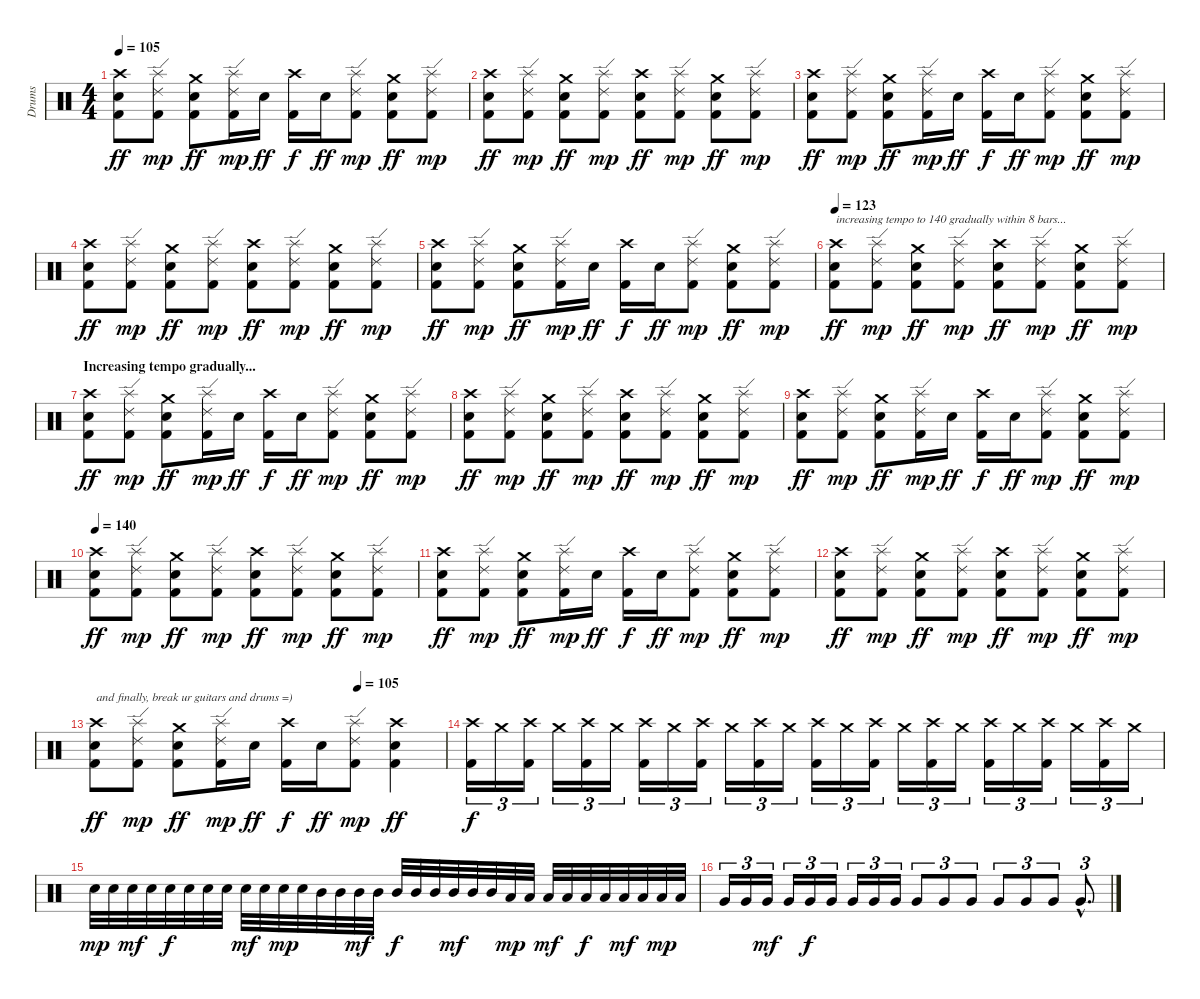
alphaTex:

\track ("Drums" "Drums") {instrument percussion}
\staff {score}
\articulation defaults
\ts (4 4)
\tempo 105
\clef neutral
\ks c
("Crash high (hit)" "Snare (hit) 2" "Kick (hit) 2").8{dy ff} ("Splash (hit)" "Ride (edge) 2" "Kick (hit) 2").8{dy mp} ("Crash medium (hit)" "Snare (hit) 2" "Kick (hit) 2").8{dy ff} ("Splash (hit)" "Ride (edge) 2" "Kick (hit) 2").16{dy mp} "Snare (hit) 2".16{dy ff} ("Crash high (hit)" "Kick (hit) 2").16{dy f} "Snare (hit) 2".16{dy ff} ("Splash (hit)" "Ride (edge) 2" "Kick (hit) 2").8{dy mp} ("Crash medium (hit)" "Snare (hit) 2" "Kick (hit) 2").8{dy ff} ("Splash (hit)" "Ride (edge) 2" "Kick (hit) 2").8{dy mp} |
("Crash high (hit)" "Snare (hit) 2" "Kick (hit) 2").8{dy ff} ("Splash (hit)" "Ride (edge) 2" "Kick (hit) 2").8{dy mp} ("Crash medium (hit)" "Snare (hit) 2" "Kick (hit) 2").8{dy ff} ("Splash (hit)" "Ride (edge) 2" "Kick (hit) 2").8{dy mp} ("Crash high (hit)" "Snare (hit) 2" "Kick (hit) 2").8{dy ff} ("Splash (hit)" "Ride (edge) 2" "Kick (hit) 2").8{dy mp} ("Crash medium (hit)" "Snare (hit) 2" "Kick (hit) 2").8{dy ff} ("Splash (hit)" "Ride (edge) 2" "Kick (hit) 2").8{dy mp} |
("Crash high (hit)" "Snare (hit) 2" "Kick (hit) 2").8{dy ff} ("Splash (hit)" "Ride (edge) 2" "Kick (hit) 2").8{dy mp} ("Crash medium (hit)" "Snare (hit) 2" "Kick (hit) 2").8{dy ff} ("Splash (hit)" "Ride (edge) 2" "Kick (hit) 2").16{dy mp} "Snare (hit) 2".16{dy ff} ("Crash high (hit)" "Kick (hit) 2").16{dy f} "Snare (hit) 2".16{dy ff} ("Splash (hit)" "Ride (edge) 2" "Kick (hit) 2").8{dy mp} ("Crash medium (hit)" "Snare (hit) 2" "Kick (hit) 2").8{dy ff} ("Splash (hit)" "Ride (edge) 2" "Kick (hit) 2").8{dy mp} |
("Crash high (hit)" "Snare (hit) 2" "Kick (hit) 2").8{dy ff} ("Splash (hit)" "Ride (edge) 2" "Kick (hit) 2").8{dy mp} ("Crash medium (hit)" "Snare (hit) 2" "Kick (hit) 2").8{dy ff} ("Splash (hit)" "Ride (edge) 2" "Kick (hit) 2").8{dy mp} ("Crash high (hit)" "Snare (hit) 2" "Kick (hit) 2").8{dy ff} ("Splash (hit)" "Ride (edge) 2" "Kick (hit) 2").8{dy mp} ("Crash medium (hit)" "Snare (hit) 2" "Kick (hit) 2").8{dy ff} ("Splash (hit)" "Ride (edge) 2" "Kick (hit) 2").8{dy mp} |
("Crash high (hit)" "Snare (hit) 2" "Kick (hit) 2").8{dy ff} ("Splash (hit)" "Ride (edge) 2" "Kick (hit) 2").8{dy mp} ("Crash medium (hit)" "Snare (hit) 2" "Kick (hit) 2").8{dy ff} ("Splash (hit)" "Ride (edge) 2" "Kick (hit) 2").16{dy mp} "Snare (hit) 2".16{dy ff} ("Crash high (hit)" "Kick (hit) 2").16{dy f} "Snare (hit) 2".16{dy ff} ("Splash (hit)" "Ride (edge) 2" "Kick (hit) 2").8{dy mp} ("Crash medium (hit)" "Snare (hit) 2" "Kick (hit) 2").8{dy ff} ("Splash (hit)" "Ride (edge) 2" "Kick (hit) 2").8{dy mp} |
\tempo 123
("Crash high (hit)" "Snare (hit) 2" "Kick (hit) 2").8{txt "increasing tempo to 140 gradually within 8 bars..." dy ff} ("Splash (hit)" "Ride (edge) 2" "Kick (hit) 2").8{dy mp} ("Crash medium (hit)" "Snare (hit) 2" "Kick (hit) 2").8{dy ff} ("Splash (hit)" "Ride (edge) 2" "Kick (hit) 2").8{dy mp} ("Crash high (hit)" "Snare (hit) 2" "Kick (hit) 2").8{dy ff} ("Splash (hit)" "Ride (edge) 2" "Kick (hit) 2").8{dy mp} ("Crash medium (hit)" "Snare (hit) 2" "Kick (hit) 2").8{dy ff} ("Splash (hit)" "Ride (edge) 2" "Kick (hit) 2").8{dy mp} |
\section ("" "Increasing tempo gradually...")
("Crash high (hit)" "Snare (hit) 2" "Kick (hit) 2").8{dy ff} ("Splash (hit)" "Ride (edge) 2" "Kick (hit) 2").8{dy mp} ("Crash medium (hit)" "Snare (hit) 2" "Kick (hit) 2").8{dy ff} ("Splash (hit)" "Ride (edge) 2" "Kick (hit) 2").16{dy mp} "Snare (hit) 2".16{dy ff} ("Crash high (hit)" "Kick (hit) 2").16{dy f} "Snare (hit) 2".16{dy ff} ("Splash (hit)" "Ride (edge) 2" "Kick (hit) 2").8{dy mp} ("Crash medium (hit)" "Snare (hit) 2" "Kick (hit) 2").8{dy ff} ("Splash (hit)" "Ride (edge) 2" "Kick (hit) 2").8{dy mp} |
("Crash high (hit)" "Snare (hit) 2" "Kick (hit) 2").8{dy ff} ("Splash (hit)" "Ride (edge) 2" "Kick (hit) 2").8{dy mp} ("Crash medium (hit)" "Snare (hit) 2" "Kick (hit) 2").8{dy ff} ("Splash (hit)" "Ride (edge) 2" "Kick (hit) 2").8{dy mp} ("Crash high (hit)" "Snare (hit) 2" "Kick (hit) 2").8{dy ff} ("Splash (hit)" "Ride (edge) 2" "Kick (hit) 2").8{dy mp} ("Crash medium (hit)" "Snare (hit) 2" "Kick (hit) 2").8{dy ff} ("Splash (hit)" "Ride (edge) 2" "Kick (hit) 2").8{dy mp} |
("Crash high (hit)" "Snare (hit) 2" "Kick (hit) 2").8{dy ff} ("Splash (hit)" "Ride (edge) 2" "Kick (hit) 2").8{dy mp} ("Crash medium (hit)" "Snare (hit) 2" "Kick (hit) 2").8{dy ff} ("Splash (hit)" "Ride (edge) 2" "Kick (hit) 2").16{dy mp} "Snare (hit) 2".16{dy ff} ("Crash high (hit)" "Kick (hit) 2").16{dy f} "Snare (hit) 2".16{dy ff} ("Splash (hit)" "Ride (edge) 2" "Kick (hit) 2").8{dy mp} ("Crash medium (hit)" "Snare (hit) 2" "Kick (hit) 2").8{dy ff} ("Splash (hit)" "Ride (edge) 2" "Kick (hit) 2").8{dy mp} |
\tempo 140
("Crash high (hit)" "Snare (hit) 2" "Kick (hit) 2").8{dy ff} ("Splash (hit)" "Ride (edge) 2" "Kick (hit) 2").8{dy mp} ("Crash medium (hit)" "Snare (hit) 2" "Kick (hit) 2").8{dy ff} ("Splash (hit)" "Ride (edge) 2" "Kick (hit) 2").8{dy mp} ("Crash high (hit)" "Snare (hit) 2" "Kick (hit) 2").8{dy ff} ("Splash (hit)" "Ride (edge) 2" "Kick (hit) 2").8{dy mp} ("Crash medium (hit)" "Snare (hit) 2" "Kick (hit) 2").8{dy ff} ("Splash (hit)" "Ride (edge) 2" "Kick (hit) 2").8{dy mp} |
("Crash high (hit)" "Snare (hit) 2" "Kick (hit) 2").8{dy ff} ("Splash (hit)" "Ride (edge) 2" "Kick (hit) 2").8{dy mp} ("Crash medium (hit)" "Snare (hit) 2" "Kick (hit) 2").8{dy ff} ("Splash (hit)" "Ride (edge) 2" "Kick (hit) 2").16{dy mp} "Snare (hit) 2".16{dy ff} ("Crash high (hit)" "Kick (hit) 2").16{dy f} "Snare (hit) 2".16{dy ff} ("Splash (hit)" "Ride (edge) 2" "Kick (hit) 2").8{dy mp} ("Crash medium (hit)" "Snare (hit) 2" "Kick (hit) 2").8{dy ff} ("Splash (hit)" "Ride (edge) 2" "Kick (hit) 2").8{dy mp} |
("Crash high (hit)" "Snare (hit) 2" "Kick (hit) 2").8{dy ff} ("Splash (hit)" "Ride (edge) 2" "Kick (hit) 2").8{dy mp} ("Crash medium (hit)" "Snare (hit) 2" "Kick (hit) 2").8{dy ff} ("Splash (hit)" "Ride (edge) 2" "Kick (hit) 2").8{dy mp} ("Crash high (hit)" "Snare (hit) 2" "Kick (hit) 2").8{dy ff} ("Splash (hit)" "Ride (edge) 2" "Kick (hit) 2").8{dy mp} ("Crash medium (hit)" "Snare (hit) 2" "Kick (hit) 2").8{dy ff} ("Splash (hit)" "Ride (edge) 2" "Kick (hit) 2").8{dy mp} |
\tempo (105 0.75)
("Crash high (hit)" "Snare (hit) 2" "Kick (hit) 2").8{txt "and finally, break ur guitars and drums =)" dy ff} ("Splash (hit)" "Ride (edge) 2" "Kick (hit) 2").8{dy mp} ("Crash medium (hit)" "Snare (hit) 2" "Kick (hit) 2").8{dy ff} ("Splash (hit)" "Ride (edge) 2" "Kick (hit) 2").16{dy mp} "Snare (hit) 2".16{dy ff} ("Crash high (hit)" "Kick (hit) 2").16{dy f} "Snare (hit) 2".16{dy ff} ("Splash (hit)" "Ride (edge) 2" "Kick (hit) 2").8{dy mp} ("Crash high (hit)" "Snare (hit) 2" "Kick (hit) 2").4{dy ff} |
("Crash high (hit)" "Kick (hit) 2").16{tu (3 2) dy f} "Crash medium (hit)".16{tu (3 2)} ("Crash high (hit)" "Kick (hit) 2").16{tu (3 2)} "Crash medium (hit)".16{tu (3 2)} ("Crash high (hit)" "Kick (hit) 2").16{tu (3 2)} "Crash medium (hit)".16{tu (3 2)} ("Crash high (hit)" "Kick (hit) 2").16{tu (3 2)} "Crash medium (hit)".16{tu (3 2)} ("Crash high (hit)" "Kick (hit) 2").16{tu (3 2)} "Crash medium (hit)".16{tu (3 2)} ("Crash high (hit)" "Kick (hit) 2").16{tu (3 2)} "Crash medium (hit)".16{tu (3 2)} ("Crash high (hit)" "Kick (hit) 2").16{tu (3 2)} "Crash medium (hit)".16{tu (3 2)} ("Crash high (hit)" "Kick (hit) 2").16{tu (3 2)} "Crash medium (hit)".16{tu (3 2)} ("Crash high (hit)" "Kick (hit) 2").16{tu (3 2)} "Crash medium (hit)".16{tu (3 2)} ("Crash high (hit)" "Kick (hit) 2").16{tu (3 2)} "Crash medium (hit)".16{tu (3 2)} ("Crash high (hit)" "Kick (hit) 2").16{tu (3 2)} "Crash medium (hit)".16{tu (3 2)} ("Crash high (hit)" "Kick (hit) 2").16{tu (3 2)} "Crash medium (hit)".16{tu (3 2)} |
"Snare (hit) 2".32{dy mp} "Snare (hit) 2".32 "Snare (hit) 2".32{dy mf} "Snare (hit) 2".32 "Snare (hit) 2".32{dy f} "Snare (hit) 2".32 "Snare (hit) 2".32 "Snare (hit) 2".32 "Snare (hit) 2".32{dy mf} "Snare (hit) 2".32 "Snare (hit) 2".32{dy mp} "Snare (hit) 2".32 "Mid Tom (hit)".32 "Mid Tom (hit)".32 "Mid Tom (hit)".32{dy mf} "Mid Tom (hit)".32 "Mid Tom (hit)".32{dy f} "Mid Tom (hit)".32 "Mid Tom (hit)".32 "Mid Tom (hit)".32{dy mf} "Mid Tom (hit)".32 "Mid Tom (hit)".32 "Low Tom (hit)".32{dy mp} "Low Tom (hit)".32 "Low Tom (hit)".32{dy mf} "Low Tom (hit)".32 "Low Tom (hit)".32{dy f} "Low Tom (hit)".32 "Low Tom (hit)".32{dy mf} "Low Tom (hit)".32 "Low Tom (hit)".32{dy mp} "Low Tom (hit)".32 |
"Very Low Tom (hit)".16{tu (3 2)} "Very Low Tom (hit)".16{tu (3 2)} "Very Low Tom (hit)".16{tu (3 2) dy mf} "Very Low Tom (hit)".16{tu (3 2)} "Very Low Tom (hit)".16{tu (3 2) dy f} "Very Low Tom (hit)".16{tu (3 2)} "Very Low Tom (hit)".16{tu (3 2)} "Very Low Tom (hit)".16{tu (3 2)} "Very Low Tom (hit)".16{tu (3 2)} "Very Low Tom (hit)".8{tu (3 2)} "Very Low Tom (hit)".8{tu (3 2)} "Very Low Tom (hit)".8{tu (3 2)} "Very Low Tom (hit)".8{tu (3 2)} "Very Low Tom (hit)".8{tu (3 2)} "Very Low Tom (hit)".8{tu (3 2)} "Very Low Tom (hit)"{hac}.8{d tu (3 2)}
